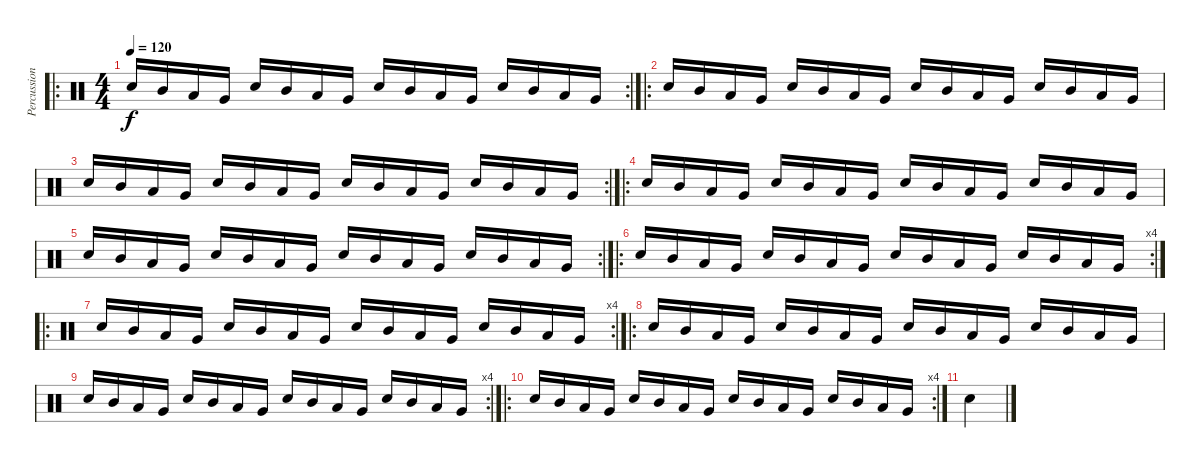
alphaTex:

\track ("Percussion" "Percussion") {instrument percussion}
\staff {score}
\articulation defaults
\ro
\rc 2
\ts (4 4)
\tempo 120
\clef neutral
\ks c "Snare (hit)"{x}.16{dy f} "Mid Tom (hit)".16 "Low Tom (hit)".16 "Very Low Tom (hit)".16 "Snare (hit)"{x}.16 "Mid Tom (hit)".16 "Low Tom (hit)".16 "Very Low Tom (hit)".16 "Snare (hit)"{x}.16 "Mid Tom (hit)".16 "Low Tom (hit)".16 "Very Low Tom (hit)".16 "Snare (hit)"{x}.16 "Mid Tom (hit)".16 "Low Tom (hit)".16 "Very Low Tom (hit)".16
|
\ro "Snare (hit) 2".16{volume 13} "Mid Tom (hit)".16 "Low Tom (hit)".16 "Very Low Tom (hit)".16 "Snare (hit) 2".16 "Mid Tom (hit)".16 "Low Tom (hit)".16 "Very Low Tom (hit)".16 "Snare (hit) 2".16 "Mid Tom (hit)".16 "Low Tom (hit)".16 "Very Low Tom (hit)".16 "Snare (hit) 2".16 "Mid Tom (hit)".16 "Low Tom (hit)".16 "Very Low Tom (hit)".16
|
\rc 2 "Snare (hit) 2".16 "Mid Tom (hit)".16 "Low Tom (hit)".16 "Very Low Tom (hit)".16 "Snare (hit) 2".16 "Mid Tom (hit)".16 "Low Tom (hit)".16 "Very Low Tom (hit)".16 "Snare (hit) 2".16 "Mid Tom (hit)".16 "Low Tom (hit)".16 "Very Low Tom (hit)".16 "Snare (hit) 2".16 "Mid Tom (hit)".16 "Low Tom (hit)".16 "Very Low Tom (hit)".16
|
\ro "Snare (hit) 2".16 "Mid Tom (hit)".16 "Low Tom (hit)".16 "Very Low Tom (hit)".16 "Snare (hit) 2".16 "Mid Tom (hit)".16 "Low Tom (hit)".16 "Very Low Tom (hit)".16 "Snare (hit) 2".16 "Mid Tom (hit)".16 "Low Tom (hit)".16 "Very Low Tom (hit)".16 "Snare (hit) 2".16 "Mid Tom (hit)".16 "Low Tom (hit)".16 "Very Low Tom (hit)".16
|
\rc 2 "Snare (hit) 2".16 "Mid Tom (hit)".16 "Low Tom (hit)".16 "Very Low Tom (hit)".16 "Snare (hit) 2".16 "Mid Tom (hit)".16 "Low Tom (hit)".16 "Very Low Tom (hit)".16 "Snare (hit) 2".16 "Mid Tom (hit)".16 "Low Tom (hit)".16 "Very Low Tom (hit)".16 "Snare (hit) 2".16 "Mid Tom (hit)".16 "Low Tom (hit)".16 "Very Low Tom (hit)".16
|
\ro
\rc 4 "Snare (hit)"{x}.16{volume 8} "Mid Tom (hit)".16 "Low Tom (hit)".16 "Very Low Tom (hit)".16 "Snare (hit)"{x}.16 "Mid Tom (hit)".16 "Low Tom (hit)".16 "Very Low Tom (hit)".16 "Snare (hit)"{x}.16 "Mid Tom (hit)".16 "Low Tom (hit)".16 "Very Low Tom (hit)".16 "Snare (hit)"{x}.16 "Mid Tom (hit)".16 "Low Tom (hit)".16 "Very Low Tom (hit)".16
|
\ro
\rc 4 "Snare (hit)"{x}.16 "Mid Tom (hit)".16 "Low Tom (hit)".16 "Very Low Tom (hit)".16 "Snare (hit)"{x}.16 "Mid Tom (hit)".16 "Low Tom (hit)".16 "Very Low Tom (hit)".16 "Snare (hit)"{x}.16 "Mid Tom (hit)".16 "Low Tom (hit)".16 "Very Low Tom (hit)".16 "Snare (hit)"{x}.16 "Mid Tom (hit)".16 "Low Tom (hit)".16 "Very Low Tom (hit)".16
|
\ro "Snare (hit) 2".16{volume 13} "Mid Tom (hit)".16 "Low Tom (hit)".16 "Very Low Tom (hit)".16 "Snare (hit) 2".16 "Mid Tom (hit)".16 "Low Tom (hit)".16 "Very Low Tom (hit)".16 "Snare (hit) 2".16 "Mid Tom (hit)".16 "Low Tom (hit)".16 "Very Low Tom (hit)".16 "Snare (hit) 2".16 "Mid Tom (hit)".16 "Low Tom (hit)".16 "Very Low Tom (hit)".16
|
\rc 4 "Snare (hit) 2".16 "Mid Tom (hit)".16 "Low Tom (hit)".16 "Very Low Tom (hit)".16 "Snare (hit) 2".16 "Mid Tom (hit)".16 "Low Tom (hit)".16 "Very Low Tom (hit)".16 "Snare (hit) 2".16 "Mid Tom (hit)".16 "Low Tom (hit)".16 "Very Low Tom (hit)".16 "Snare (hit) 2".16 "Mid Tom (hit)".16 "Low Tom (hit)".16 "Very Low Tom (hit)".16
|
\ro
\rc 4 "Snare (hit)"{x}.16{volume 8} "Mid Tom (hit)".16 "Low Tom (hit)".16 "Very Low Tom (hit)".16 "Snare (hit)"{x}.16 "Mid Tom (hit)".16 "Low Tom (hit)".16 "Very Low Tom (hit)".16 "Snare (hit)"{x}.16 "Mid Tom (hit)".16 "Low Tom (hit)".16 "Very Low Tom (hit)".16 "Snare (hit)"{x}.16 "Mid Tom (hit)".16 "Low Tom (hit)".16 "Very Low Tom (hit)".16
|
"Snare (hit) 2".4{volume 13}
